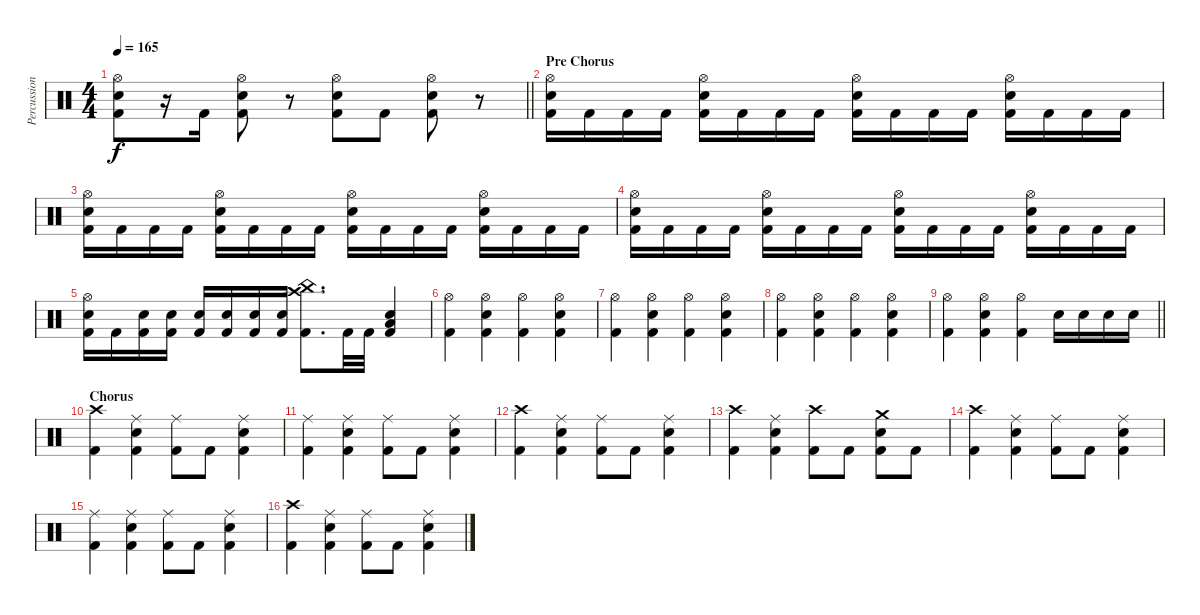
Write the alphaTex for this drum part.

\track ("Percussion" "Percussion") {instrument percussion}
\staff {score}
\articulation defaults
\ts (4 4)
\tempo 165
\clef neutral
\barLineRight lightlight
\ks c
("Hi-Hat (open)" "Kick (hit) 2" "Snare (hit) 2").8{dy f} r.16 "Kick (hit) 2".16 ("Hi-Hat (open)" "Kick (hit) 2" "Snare (hit) 2").8 r.8 ("Hi-Hat (open)" "Kick (hit) 2" "Snare (hit) 2").8 "Kick (hit) 2".8 ("Hi-Hat (open)" "Kick (hit) 2" "Snare (hit) 2").8 r.8 |
\section ("" "Pre Chorus")
("Kick (hit) 2" "Hi-Hat (open)" "Snare (hit) 2").16 "Kick (hit) 2".16 "Kick (hit) 2".16 "Kick (hit) 2".16 ("Kick (hit) 2" "Hi-Hat (open)" "Snare (hit) 2").16 "Kick (hit) 2".16 "Kick (hit) 2".16 "Kick (hit) 2".16 ("Kick (hit) 2" "Hi-Hat (open)" "Snare (hit) 2").16 "Kick (hit) 2".16 "Kick (hit) 2".16 "Kick (hit) 2".16 ("Kick (hit) 2" "Hi-Hat (open)" "Snare (hit) 2").16 "Kick (hit) 2".16 "Kick (hit) 2".16 "Kick (hit) 2".16 |
("Kick (hit) 2" "Hi-Hat (open)" "Snare (hit) 2").16 "Kick (hit) 2".16 "Kick (hit) 2".16 "Kick (hit) 2".16 ("Kick (hit) 2" "Hi-Hat (open)" "Snare (hit) 2").16 "Kick (hit) 2".16 "Kick (hit) 2".16 "Kick (hit) 2".16 ("Kick (hit) 2" "Hi-Hat (open)" "Snare (hit) 2").16 "Kick (hit) 2".16 "Kick (hit) 2".16 "Kick (hit) 2".16 ("Kick (hit) 2" "Hi-Hat (open)" "Snare (hit) 2").16 "Kick (hit) 2".16 "Kick (hit) 2".16 "Kick (hit) 2".16 |
("Kick (hit) 2" "Hi-Hat (open)" "Snare (hit) 2").16 "Kick (hit) 2".16 "Kick (hit) 2".16 "Kick (hit) 2".16 ("Kick (hit) 2" "Hi-Hat (open)" "Snare (hit) 2").16 "Kick (hit) 2".16 "Kick (hit) 2".16 "Kick (hit) 2".16 ("Kick (hit) 2" "Hi-Hat (open)" "Snare (hit) 2").16 "Kick (hit) 2".16 "Kick (hit) 2".16 "Kick (hit) 2".16 ("Kick (hit) 2" "Hi-Hat (open)" "Snare (hit) 2").16 "Kick (hit) 2".16 "Kick (hit) 2".16 "Kick (hit) 2".16 |
("Kick (hit) 2" "Hi-Hat (open)" "Snare (hit) 2").16 "Kick (hit) 2".16 ("Kick (hit) 2" "Snare (hit) 2").16 ("Kick (hit) 2" "Snare (hit) 2").16 ("Kick (hit) 2" "Snare (hit) 2").16 ("Kick (hit) 2" "Snare (hit) 2").16 ("Kick (hit) 2" "Snare (hit) 2").16 ("Kick (hit) 2" "Snare (hit) 2").16 ("Kick (hit) 2" "Crash high (hit)" "China (hit)").8{d} "Kick (hit) 2".32 "Kick (hit) 2".32 ("Kick (hit) 2" "Low Tom (hit)" "Snare (hit) 2").4 |
("Kick (hit) 2" "Hi-Hat (open)").4 ("Hi-Hat (open)" "Snare (hit) 2" "Kick (hit) 2").4 ("Kick (hit) 2" "Hi-Hat (open)").4 ("Hi-Hat (open)" "Snare (hit) 2" "Kick (hit) 2").4 |
("Kick (hit) 2" "Hi-Hat (open)").4 ("Hi-Hat (open)" "Snare (hit) 2" "Kick (hit) 2").4 ("Kick (hit) 2" "Hi-Hat (open)").4 ("Hi-Hat (open)" "Snare (hit) 2" "Kick (hit) 2").4 |
("Kick (hit) 2" "Hi-Hat (open)").4 ("Hi-Hat (open)" "Snare (hit) 2" "Kick (hit) 2").4 ("Kick (hit) 2" "Hi-Hat (open)").4 ("Hi-Hat (open)" "Snare (hit) 2" "Kick (hit) 2").4 |
\barLineRight lightlight
("Kick (hit) 2" "Hi-Hat (open)").4 ("Hi-Hat (open)" "Snare (hit) 2" "Kick (hit) 2").4 ("Kick (hit) 2" "Hi-Hat (open)").4 "Snare (hit) 2".16 "Snare (hit) 2".16 "Snare (hit) 2".16 "Snare (hit) 2".16 |
\section ("" "Chorus")
("Crash high (hit)" "Kick (hit) 2").4 ("Snare (hit) 2" "Ride (middle)" "Kick (hit) 2").4 ("Ride (middle)" "Kick (hit) 2").8 "Kick (hit) 2".8 ("Snare (hit) 2" "Ride (middle)" "Kick (hit) 2").4 |
("Ride (middle)" "Kick (hit) 2").4 ("Snare (hit) 2" "Ride (middle)" "Kick (hit) 2").4 ("Ride (middle)" "Kick (hit) 2").8 "Kick (hit) 2".8 ("Snare (hit) 2" "Ride (middle)" "Kick (hit) 2").4 |
("Crash high (hit)" "Kick (hit) 2").4 ("Snare (hit) 2" "Ride (middle)" "Kick (hit) 2").4 ("Ride (middle)" "Kick (hit) 2").8 "Kick (hit) 2".8 ("Snare (hit) 2" "Ride (middle)" "Kick (hit) 2").4 |
("Crash high (hit)" "Kick (hit) 2").4 ("Snare (hit) 2" "Ride (middle)" "Kick (hit) 2").4 ("Crash high (hit)" "Kick (hit) 2").8 "Kick (hit) 2".8 ("Snare (hit) 2" "Crash medium (hit)" "Kick (hit) 2").8 "Kick (hit) 2".8 |
("Crash high (hit)" "Kick (hit) 2").4 ("Snare (hit) 2" "Ride (middle)" "Kick (hit) 2").4 ("Ride (middle)" "Kick (hit) 2").8 "Kick (hit) 2".8 ("Snare (hit) 2" "Ride (middle)" "Kick (hit) 2").4 |
("Ride (middle)" "Kick (hit) 2").4 ("Snare (hit) 2" "Ride (middle)" "Kick (hit) 2").4 ("Ride (middle)" "Kick (hit) 2").8 "Kick (hit) 2".8 ("Snare (hit) 2" "Ride (middle)" "Kick (hit) 2").4 |
("Crash high (hit)" "Kick (hit) 2").4 ("Snare (hit) 2" "Ride (middle)" "Kick (hit) 2").4 ("Ride (middle)" "Kick (hit) 2").8 "Kick (hit) 2".8 ("Snare (hit) 2" "Ride (middle)" "Kick (hit) 2").4
